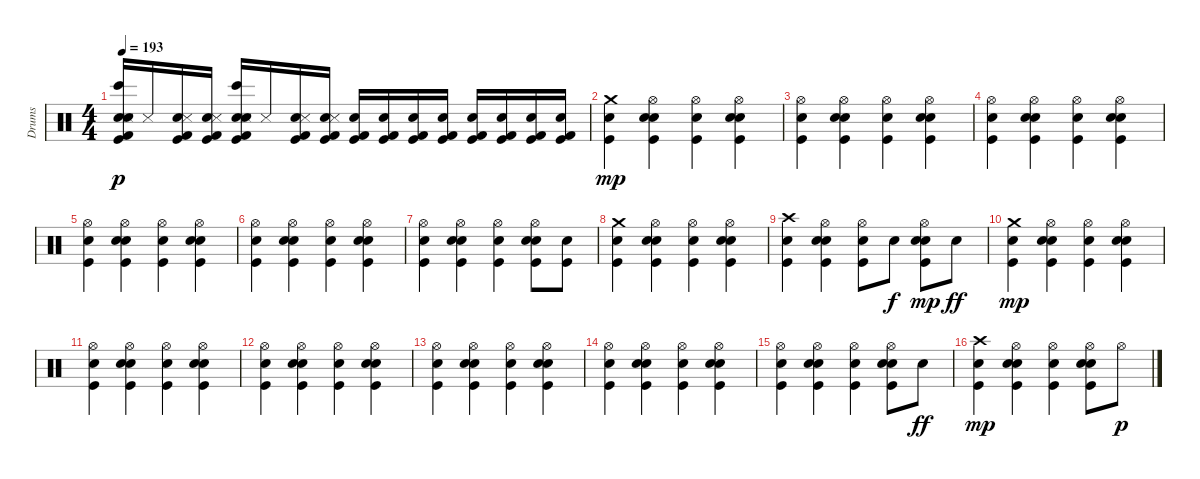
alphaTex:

\track ("Drums" "Drums") {instrument percussion}
\staff {score}
\articulation defaults
\ts (4 4)
\tempo 193
\clef neutral
\ks c
("Hand Clap (hit)" "Bongo High (hit)" "Kick (hit) 2" "Kick (hit)" "Snare (hit) 2" "Snare (side stick) 3").16{dy p} "Snare (side stick) 3".16 ("Kick (hit) 2" "Kick (hit)" "Snare (hit) 2" "Snare (side stick) 3").16 ("Kick (hit) 2" "Kick (hit)" "Snare (hit) 2" "Snare (side stick) 3").16 ("Hand Clap (hit)" "Bongo High (hit)" "Kick (hit) 2" "Kick (hit)" "Snare (hit) 2" "Snare (side stick) 3").16 "Snare (side stick) 3".16 ("Kick (hit) 2" "Kick (hit)" "Snare (hit) 2" "Snare (side stick) 3").16 ("Kick (hit) 2" "Kick (hit)" "Snare (hit) 2" "Snare (side stick) 3").16 ("Kick (hit) 2" "Kick (hit)" "Snare (hit) 2").16 ("Kick (hit) 2" "Kick (hit)" "Snare (hit) 2").16 ("Kick (hit) 2" "Kick (hit)" "Snare (hit) 2").16 ("Kick (hit) 2" "Kick (hit)" "Snare (hit) 2").16 ("Kick (hit) 2" "Kick (hit)" "Snare (hit) 2").16 ("Kick (hit) 2" "Kick (hit)" "Snare (hit) 2").16 ("Kick (hit) 2" "Kick (hit)" "Snare (hit) 2").16 ("Kick (hit) 2" "Kick (hit)" "Snare (hit) 2").16 |
("Crash medium (hit)" "Kick (hit)" "Snare (hit) 2").4{dy mp} ("Kick (hit)" "Snare (hit) 2" "Electric Snare (hit)" "Hi-Hat (open)").4 ("Kick (hit)" "Snare (hit) 2" "Hi-Hat (open)").4 ("Kick (hit)" "Snare (hit) 2" "Electric Snare (hit)" "Hi-Hat (open)").4 |
("Kick (hit)" "Snare (hit) 2" "Hi-Hat (open)").4 ("Kick (hit)" "Snare (hit) 2" "Electric Snare (hit)" "Hi-Hat (open)").4 ("Kick (hit)" "Snare (hit) 2" "Hi-Hat (open)").4 ("Kick (hit)" "Snare (hit) 2" "Electric Snare (hit)" "Hi-Hat (open)").4 |
("Kick (hit)" "Snare (hit) 2" "Hi-Hat (open)").4 ("Kick (hit)" "Snare (hit) 2" "Electric Snare (hit)" "Hi-Hat (open)").4 ("Kick (hit)" "Snare (hit) 2" "Hi-Hat (open)").4 ("Kick (hit)" "Snare (hit) 2" "Electric Snare (hit)" "Hi-Hat (open)").4 |
("Kick (hit)" "Snare (hit) 2" "Hi-Hat (open)").4 ("Kick (hit)" "Snare (hit) 2" "Electric Snare (hit)" "Hi-Hat (open)").4 ("Kick (hit)" "Snare (hit) 2" "Hi-Hat (open)").4 ("Kick (hit)" "Snare (hit) 2" "Electric Snare (hit)" "Hi-Hat (open)").4 |
("Kick (hit)" "Snare (hit) 2" "Hi-Hat (open)").4 ("Kick (hit)" "Snare (hit) 2" "Electric Snare (hit)" "Hi-Hat (open)").4 ("Kick (hit)" "Snare (hit) 2" "Hi-Hat (open)").4 ("Kick (hit)" "Snare (hit) 2" "Electric Snare (hit)" "Hi-Hat (open)").4 |
("Kick (hit)" "Snare (hit) 2" "Hi-Hat (open)").4 ("Kick (hit)" "Snare (hit) 2" "Electric Snare (hit)" "Hi-Hat (open)").4 ("Kick (hit)" "Snare (hit) 2" "Hi-Hat (open)").4 ("Kick (hit)" "Snare (hit) 2" "Electric Snare (hit)" "Hi-Hat (open)").8 ("Kick (hit)" "Snare (hit) 2").8 |
("Crash medium (hit)" "Kick (hit)" "Snare (hit) 2").4 ("Kick (hit)" "Snare (hit) 2" "Electric Snare (hit)" "Hi-Hat (open)").4 ("Kick (hit)" "Snare (hit) 2" "Hi-Hat (open)").4 ("Kick (hit)" "Snare (hit) 2" "Electric Snare (hit)" "Hi-Hat (open)").4 |
("Crash high (hit)" "Kick (hit)" "Snare (hit) 2").4 ("Kick (hit)" "Snare (hit) 2" "Electric Snare (hit)" "Hi-Hat (open)").4 ("Kick (hit)" "Snare (hit) 2" "Hi-Hat (open)").8 "Electric Snare (hit)".8{dy f} ("Kick (hit)" "Snare (hit) 2" "Electric Snare (hit)" "Hi-Hat (open)").8{dy mp} "Electric Snare (hit)".8{dy ff} |
("Crash medium (hit)" "Kick (hit)" "Snare (hit) 2").4{dy mp} ("Kick (hit)" "Snare (hit) 2" "Electric Snare (hit)" "Hi-Hat (open)").4 ("Kick (hit)" "Snare (hit) 2" "Hi-Hat (open)").4 ("Kick (hit)" "Snare (hit) 2" "Electric Snare (hit)" "Hi-Hat (open)").4 |
("Kick (hit)" "Snare (hit) 2" "Hi-Hat (open)").4 ("Kick (hit)" "Snare (hit) 2" "Electric Snare (hit)" "Hi-Hat (open)").4 ("Kick (hit)" "Snare (hit) 2" "Hi-Hat (open)").4 ("Kick (hit)" "Snare (hit) 2" "Electric Snare (hit)" "Hi-Hat (open)").4 |
("Kick (hit)" "Snare (hit) 2" "Hi-Hat (open)").4 ("Kick (hit)" "Snare (hit) 2" "Electric Snare (hit)" "Hi-Hat (open)").4 ("Kick (hit)" "Snare (hit) 2" "Hi-Hat (open)").4 ("Kick (hit)" "Snare (hit) 2" "Electric Snare (hit)" "Hi-Hat (open)").4 |
("Kick (hit)" "Snare (hit) 2" "Hi-Hat (open)").4 ("Kick (hit)" "Snare (hit) 2" "Electric Snare (hit)" "Hi-Hat (open)").4 ("Kick (hit)" "Snare (hit) 2" "Hi-Hat (open)").4 ("Kick (hit)" "Snare (hit) 2" "Electric Snare (hit)" "Hi-Hat (open)").4 |
("Kick (hit)" "Snare (hit) 2" "Hi-Hat (open)").4 ("Kick (hit)" "Snare (hit) 2" "Electric Snare (hit)" "Hi-Hat (open)").4 ("Kick (hit)" "Snare (hit) 2" "Hi-Hat (open)").4 ("Kick (hit)" "Snare (hit) 2" "Electric Snare (hit)" "Hi-Hat (open)").4 |
("Kick (hit)" "Snare (hit) 2" "Hi-Hat (open)").4 ("Kick (hit)" "Snare (hit) 2" "Electric Snare (hit)" "Hi-Hat (open)").4 ("Kick (hit)" "Snare (hit) 2" "Hi-Hat (open)").4 ("Kick (hit)" "Snare (hit) 2" "Electric Snare (hit)" "Hi-Hat (open)").8 "Electric Snare (hit)".8{dy ff} |
("Crash high (hit)" "Kick (hit)" "Snare (hit) 2").4{dy mp} ("Kick (hit)" "Snare (hit) 2" "Electric Snare (hit)" "Hi-Hat (open)").4 ("Kick (hit)" "Snare (hit) 2" "Hi-Hat (open)").4 ("Kick (hit)" "Snare (hit) 2" "Electric Snare (hit)" "Hi-Hat (open)").8 "Hi-Hat (open)".8{dy p}
